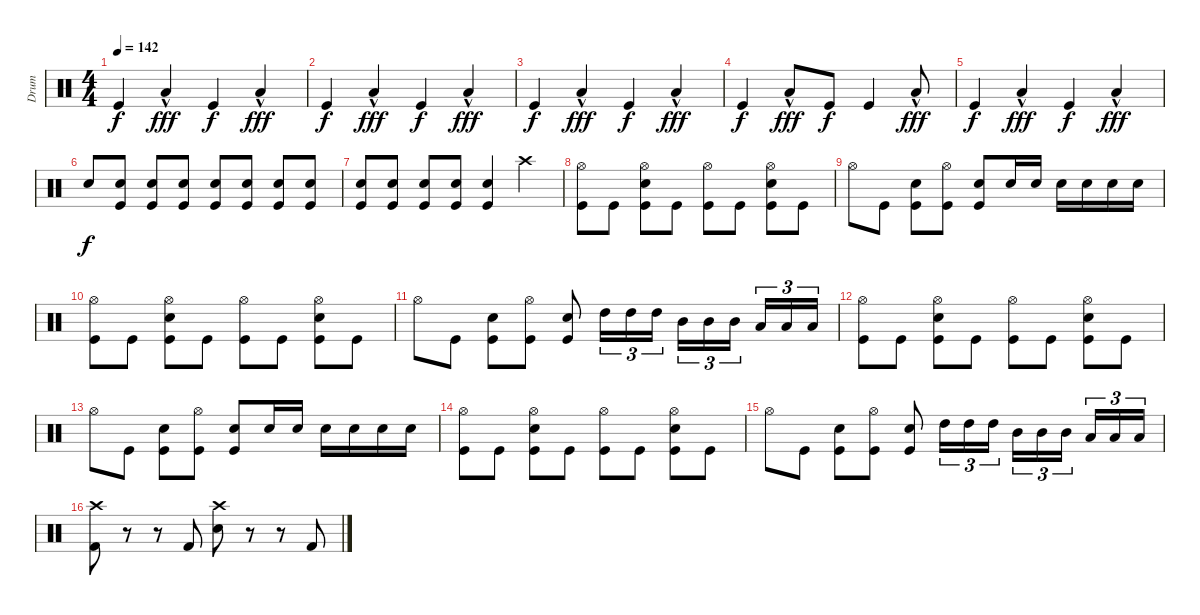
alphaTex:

\track ("Drum" "Drum") {instrument percussion}
\staff {score}
\articulation defaults
\ts (4 4)
\tempo 142
\clef neutral
\ks c "Kick (hit)".4{dy f} "Low Floor Tom (hit)"{hac}.4{dy fff} "Kick (hit)".4{dy f} "Low Floor Tom (hit)"{hac}.4{dy fff}
|
"Kick (hit)".4{dy f} "Low Floor Tom (hit)"{hac}.4{dy fff} "Kick (hit)".4{dy f} "Low Floor Tom (hit)"{hac}.4{dy fff} |
"Kick (hit)".4{dy f} "Low Floor Tom (hit)"{hac}.4{dy fff} "Kick (hit)".4{dy f} "Low Floor Tom (hit)"{hac}.4{dy fff} |
"Kick (hit)".4{dy f} "Low Floor Tom (hit)"{hac}.8{dy fff} "Kick (hit)".8{dy f} "Kick (hit)".4 "Low Floor Tom (hit)"{hac}.8{dy fff} |
"Kick (hit)".4{dy f} "Low Floor Tom (hit)"{hac}.4{dy fff} "Kick (hit)".4{dy f} "Low Floor Tom (hit)"{hac}.4{dy fff} |
"Snare (hit) 2".8{dy f} ("Kick (hit)" "Snare (hit) 2").8 ("Kick (hit)" "Snare (hit) 2").8 ("Kick (hit)" "Snare (hit) 2").8 ("Kick (hit)" "Snare (hit) 2").8 ("Kick (hit)" "Snare (hit) 2").8 ("Kick (hit)" "Snare (hit) 2").8 ("Kick (hit)" "Snare (hit) 2").8 |
("Snare (hit) 2" "Kick (hit)").8 ("Kick (hit)" "Snare (hit) 2").8 ("Kick (hit)" "Snare (hit) 2").8 ("Kick (hit)" "Snare (hit) 2").8 ("Kick (hit)" "Snare (hit) 2").4 "Crash high (hit)".4 |
("Hi-Hat (open)" "Kick (hit)").8 "Kick (hit)".8 ("Hi-Hat (open)" "Snare (hit) 2" "Kick (hit)").8 "Kick (hit)".8 ("Hi-Hat (open)" "Kick (hit)").8 "Kick (hit)".8 ("Hi-Hat (open)" "Snare (hit) 2" "Kick (hit)").8 "Kick (hit)".8 |
"Hi-Hat (open)".8 "Kick (hit)".8 ("Kick (hit)" "Snare (hit) 2").8 ("Kick (hit)" "Hi-Hat (open)").8 ("Kick (hit)" "Snare (hit) 2").8 "Snare (hit) 2".16 "Snare (hit) 2".16 "Snare (hit) 2".16 "Snare (hit) 2".16 "Snare (hit) 2".16 "Snare (hit) 2".16 |
("Hi-Hat (open)" "Kick (hit)").8 "Kick (hit)".8 ("Hi-Hat (open)" "Snare (hit) 2" "Kick (hit)").8 "Kick (hit)".8 ("Hi-Hat (open)" "Kick (hit)").8 "Kick (hit)".8 ("Hi-Hat (open)" "Snare (hit) 2" "Kick (hit)").8 "Kick (hit)".8 |
"Hi-Hat (open)".8 "Kick (hit)".8 ("Kick (hit)" "Snare (hit) 2").8 ("Kick (hit)" "Hi-Hat (open)").8 ("Kick (hit)" "Snare (hit) 2").8 "High Tom (hit)".16{tu (3 2)} "High Tom (hit)".16{tu (3 2)} "High Tom (hit)".16{tu (3 2)} "Mid Tom (hit)".16{tu (3 2)} "Mid Tom (hit)".16{tu (3 2)} "Mid Tom (hit)".16{tu (3 2) beam splitsecondary} "Low Tom (hit)".16{tu (3 2)} "Low Tom (hit)".16{tu (3 2)} "Low Tom (hit)".16{tu (3 2)} |
("Hi-Hat (open)" "Kick (hit)").8 "Kick (hit)".8 ("Hi-Hat (open)" "Snare (hit) 2" "Kick (hit)").8 "Kick (hit)".8 ("Hi-Hat (open)" "Kick (hit)").8 "Kick (hit)".8 ("Hi-Hat (open)" "Snare (hit) 2" "Kick (hit)").8 "Kick (hit)".8 |
"Hi-Hat (open)".8 "Kick (hit)".8 ("Kick (hit)" "Snare (hit) 2").8 ("Kick (hit)" "Hi-Hat (open)").8 ("Kick (hit)" "Snare (hit) 2").8 "Snare (hit) 2".16 "Snare (hit) 2".16 "Snare (hit) 2".16 "Snare (hit) 2".16 "Snare (hit) 2".16 "Snare (hit) 2".16 |
("Hi-Hat (open)" "Kick (hit)").8 "Kick (hit)".8 ("Hi-Hat (open)" "Snare (hit) 2" "Kick (hit)").8 "Kick (hit)".8 ("Hi-Hat (open)" "Kick (hit)").8 "Kick (hit)".8 ("Hi-Hat (open)" "Snare (hit) 2" "Kick (hit)").8 "Kick (hit)".8 |
"Hi-Hat (open)".8 "Kick (hit)".8 ("Kick (hit)" "Snare (hit) 2").8 ("Kick (hit)" "Hi-Hat (open)").8 ("Kick (hit)" "Snare (hit) 2").8 "High Tom (hit)".16{tu (3 2)} "High Tom (hit)".16{tu (3 2)} "High Tom (hit)".16{tu (3 2)} "Mid Tom (hit)".16{tu (3 2)} "Mid Tom (hit)".16{tu (3 2)} "Mid Tom (hit)".16{tu (3 2) beam splitsecondary} "Low Tom (hit)".16{tu (3 2)} "Low Tom (hit)".16{tu (3 2)} "Low Tom (hit)".16{tu (3 2)} |
("Crash high (hit)" "Kick (hit) 2").8 r.8 r.8 "Kick (hit) 2".8 ("Crash high (hit)" "Electric Snare (hit)").8 r.8 r.8 "Kick (hit) 2".8
